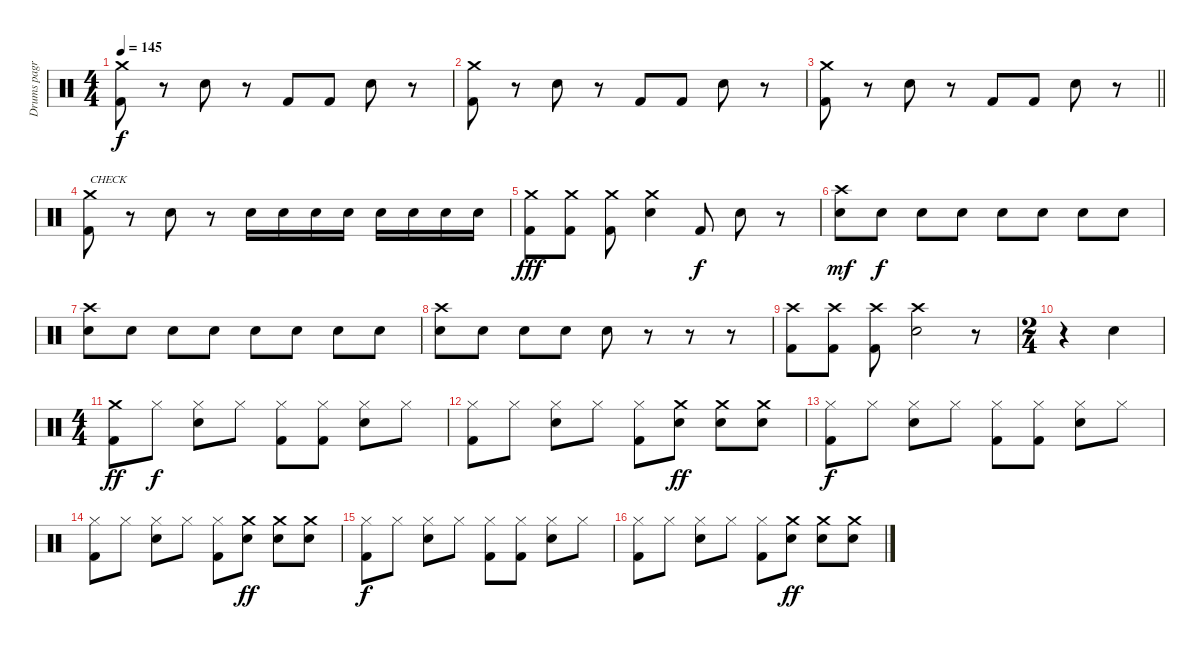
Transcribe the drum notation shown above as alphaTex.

\track ("Drums pagr" "Drums pagr") {instrument percussion}
\staff {score}
\articulation defaults
\ts (4 4)
\tempo 145
\clef neutral
\ks c
("Crash medium (hit)" "Kick (hit) 2").8{dy f} r.8 "Snare (hit) 2".8 r.8 "Kick (hit) 2".8 "Kick (hit) 2".8 "Snare (hit) 2".8 r.8 |
("Crash medium (hit)" "Kick (hit) 2").8 r.8 "Snare (hit) 2".8 r.8 "Kick (hit) 2".8 "Kick (hit) 2".8 "Snare (hit) 2".8 r.8 |
\barLineRight lightlight
("Crash medium (hit)" "Kick (hit) 2").8 r.8 "Snare (hit) 2".8 r.8 "Kick (hit) 2".8 "Kick (hit) 2".8 "Snare (hit) 2".8 r.8 |
\section ("" "")
("Crash medium (hit)" "Kick (hit) 2").8{txt "CHECK"} r.8 "Snare (hit) 2".8 r.8 "Snare (hit) 2".16 "Snare (hit) 2".16 "Snare (hit) 2".16 "Snare (hit) 2".16 "Snare (hit) 2".16 "Snare (hit) 2".16 "Snare (hit) 2".16 "Snare (hit) 2".16 |
("Crash medium (hit)" "Kick (hit) 2").8{dy fff} ("Crash medium (hit)" "Kick (hit) 2").8 ("Crash medium (hit)" "Kick (hit) 2").8 ("Crash medium (hit)" "Snare (hit) 2").4 "Kick (hit) 2".8{dy f} "Snare (hit) 2".8 r.8 |
("Crash high (hit)" "Snare (hit) 2").8{dy mf} "Snare (hit) 2".8{dy f} "Snare (hit) 2".8 "Snare (hit) 2".8 "Snare (hit) 2".8 "Snare (hit) 2".8 "Snare (hit) 2".8 "Snare (hit) 2".8 |
("Crash high (hit)" "Snare (hit) 2").8 "Snare (hit) 2".8 "Snare (hit) 2".8 "Snare (hit) 2".8 "Snare (hit) 2".8 "Snare (hit) 2".8 "Snare (hit) 2".8 "Snare (hit) 2".8 |
("Crash high (hit)" "Snare (hit) 2").8 "Snare (hit) 2".8 "Snare (hit) 2".8 "Snare (hit) 2".8 "Snare (hit) 2".8 r.8 r.8 r.8 |
("Crash high (hit)" "Kick (hit) 2").8 ("Crash high (hit)" "Kick (hit) 2").8 ("Crash high (hit)" "Kick (hit) 2").8 ("Crash high (hit)" "Snare (hit) 2").2 r.8 |
\ts (2 4)
r.4 "Snare (hit) 2".4 |
\ts (4 4)
("Crash medium (hit)" "Kick (hit) 2").8{dy ff} "Hi-Hat (closed)".8{dy f} ("Hi-Hat (closed)" "Snare (hit) 2").8 "Hi-Hat (closed)".8 ("Hi-Hat (closed)" "Kick (hit) 2").8 ("Hi-Hat (closed)" "Kick (hit) 2").8 ("Hi-Hat (closed)" "Snare (hit) 2").8 "Hi-Hat (closed)".8 |
("Hi-Hat (closed)" "Kick (hit) 2").8 "Hi-Hat (closed)".8 ("Hi-Hat (closed)" "Snare (hit) 2").8 "Hi-Hat (closed)".8 ("Hi-Hat (closed)" "Kick (hit) 2").8 ("Crash medium (hit)" "Snare (hit) 2").8{dy ff} ("Crash medium (hit)" "Snare (hit) 2").8 ("Crash medium (hit)" "Snare (hit) 2").8 |
("Hi-Hat (closed)" "Kick (hit) 2").8{dy f} "Hi-Hat (closed)".8 ("Hi-Hat (closed)" "Snare (hit) 2").8 "Hi-Hat (closed)".8 ("Hi-Hat (closed)" "Kick (hit) 2").8 ("Hi-Hat (closed)" "Kick (hit) 2").8 ("Hi-Hat (closed)" "Snare (hit) 2").8 "Hi-Hat (closed)".8 |
("Hi-Hat (closed)" "Kick (hit) 2").8 "Hi-Hat (closed)".8 ("Hi-Hat (closed)" "Snare (hit) 2").8 "Hi-Hat (closed)".8 ("Hi-Hat (closed)" "Kick (hit) 2").8 ("Crash medium (hit)" "Snare (hit) 2").8{dy ff} ("Crash medium (hit)" "Snare (hit) 2").8 ("Crash medium (hit)" "Snare (hit) 2").8 |
("Hi-Hat (closed)" "Kick (hit) 2").8{dy f} "Hi-Hat (closed)".8 ("Hi-Hat (closed)" "Snare (hit) 2").8 "Hi-Hat (closed)".8 ("Hi-Hat (closed)" "Kick (hit) 2").8 ("Hi-Hat (closed)" "Kick (hit) 2").8 ("Hi-Hat (closed)" "Snare (hit) 2").8 "Hi-Hat (closed)".8 |
("Hi-Hat (closed)" "Kick (hit) 2").8 "Hi-Hat (closed)".8 ("Hi-Hat (closed)" "Snare (hit) 2").8 "Hi-Hat (closed)".8 ("Hi-Hat (closed)" "Kick (hit) 2").8 ("Crash medium (hit)" "Snare (hit) 2").8{dy ff} ("Crash medium (hit)" "Snare (hit) 2").8 ("Crash medium (hit)" "Snare (hit) 2").8
